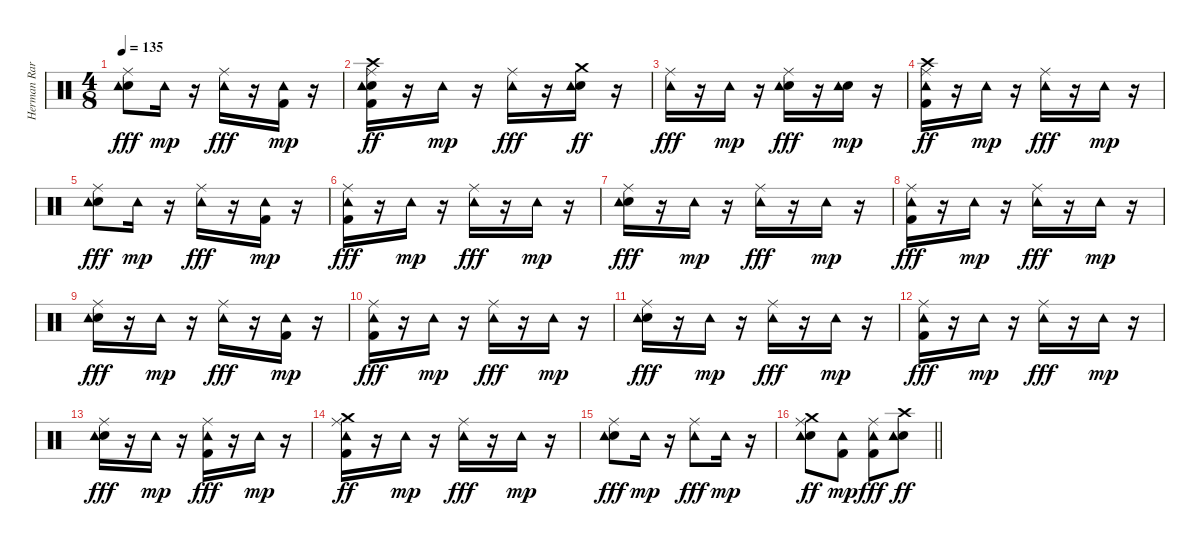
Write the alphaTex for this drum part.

\track ("Herman Rarebell" "Herman Rar") {instrument percussion}
\staff {score}
\articulation defaults
\ts (4 8)
\tempo 135
\clef neutral
\ks c
("Snare (hit) 2" "Ride (middle)" "Tambourine (hit)").8{dy fff} "Tambourine (hit)".16{dy mp} r.16 ("Ride (middle)" "Tambourine (hit)").16{dy fff} r.16 ("Kick (hit) 2" "Tambourine (hit)").16{dy mp} r.16 |
("Kick (hit) 2" "Snare (hit) 2" "Ride (middle)" "Tambourine (hit)" "Crash high (hit)").16{dy ff} r.16 "Tambourine (hit)".16{dy mp} r.16 ("Ride (middle)" "Tambourine (hit)").16{dy fff} r.16 ("Snare (hit) 2" "Tambourine (hit)" "Crash medium (hit)").16{dy ff} r.16 |
("Ride (middle)" "Tambourine (hit)").16{dy fff} r.16 "Tambourine (hit)".16{dy mp} r.16 ("Snare (hit) 2" "Ride (middle)" "Tambourine (hit)").16{dy fff} r.16 ("Snare (hit) 2" "Tambourine (hit)").16{dy mp} r.16 |
("Kick (hit) 2" "Ride (middle)" "Tambourine (hit)" "Crash high (hit)").16{dy ff} r.16 "Tambourine (hit)".16{dy mp} r.16 ("Ride (middle)" "Tambourine (hit)").16{dy fff} r.16 "Tambourine (hit)".16{dy mp} r.16 |
("Snare (hit) 2" "Ride (middle)" "Tambourine (hit)").8{dy fff} "Tambourine (hit)".16{dy mp} r.16 ("Ride (middle)" "Tambourine (hit)").16{dy fff} r.16 ("Kick (hit) 2" "Tambourine (hit)").16{dy mp} r.16 |
("Kick (hit) 2" "Ride (middle)" "Tambourine (hit)").16{dy fff} r.16 "Tambourine (hit)".16{dy mp} r.16 ("Ride (middle)" "Tambourine (hit)").16{dy fff} r.16 "Tambourine (hit)".16{dy mp} r.16 |
("Snare (hit) 2" "Ride (middle)" "Tambourine (hit)").16{dy fff} r.16 "Tambourine (hit)".16{dy mp} r.16 ("Ride (middle)" "Tambourine (hit)").16{dy fff} r.16 "Tambourine (hit)".16{dy mp} r.16 |
("Kick (hit) 2" "Ride (middle)" "Tambourine (hit)").16{dy fff} r.16 "Tambourine (hit)".16{dy mp} r.16 ("Ride (middle)" "Tambourine (hit)").16{dy fff} r.16 "Tambourine (hit)".16{dy mp} r.16 |
("Snare (hit) 2" "Ride (middle)" "Tambourine (hit)").16{dy fff} r.16 "Tambourine (hit)".16{dy mp} r.16 ("Ride (middle)" "Tambourine (hit)").16{dy fff} r.16 ("Kick (hit) 2" "Tambourine (hit)").16{dy mp} r.16 |
("Kick (hit) 2" "Ride (middle)" "Tambourine (hit)").16{dy fff} r.16 "Tambourine (hit)".16{dy mp} r.16 ("Ride (middle)" "Tambourine (hit)").16{dy fff} r.16 "Tambourine (hit)".16{dy mp} r.16 |
("Snare (hit) 2" "Ride (middle)" "Tambourine (hit)").16{dy fff} r.16 "Tambourine (hit)".16{dy mp} r.16 ("Ride (middle)" "Tambourine (hit)").16{dy fff} r.16 "Tambourine (hit)".16{dy mp} r.16 |
("Kick (hit) 2" "Ride (middle)" "Tambourine (hit)").16{dy fff} r.16 "Tambourine (hit)".16{dy mp} r.16 ("Ride (middle)" "Tambourine (hit)").16{dy fff} r.16 "Tambourine (hit)".16{dy mp} r.16 |
("Snare (hit) 2" "Ride (middle)" "Tambourine (hit)").16{dy fff} r.16 "Tambourine (hit)".16{dy mp} r.16 ("Kick (hit) 2" "Ride (middle)" "Tambourine (hit)").16{dy fff} r.16 "Tambourine (hit)".16{dy mp} r.16 |
("Kick (hit) 2" "Ride (middle)" "Tambourine (hit)" "Crash medium (hit)").16{dy ff} r.16 "Tambourine (hit)".16{dy mp} r.16 ("Ride (middle)" "Tambourine (hit)").16{dy fff} r.16 "Tambourine (hit)".16{dy mp} r.16 |
("Snare (hit) 2" "Ride (middle)" "Tambourine (hit)").8{dy fff} "Tambourine (hit)".16{dy mp} r.16 ("Ride (middle)" "Tambourine (hit)").8{dy fff} "Tambourine (hit)".16{dy mp} r.16 |
\barLineRight lightlight
("Snare (hit) 2" "Ride (middle)" "Tambourine (hit)" "Crash medium (hit)").8{dy ff} ("Kick (hit) 2" "Tambourine (hit)").8{dy mp} ("Kick (hit) 2" "Ride (middle)" "Tambourine (hit)").8{dy fff} ("Snare (hit) 2" "Tambourine (hit)" "Crash high (hit)").8{dy ff}
